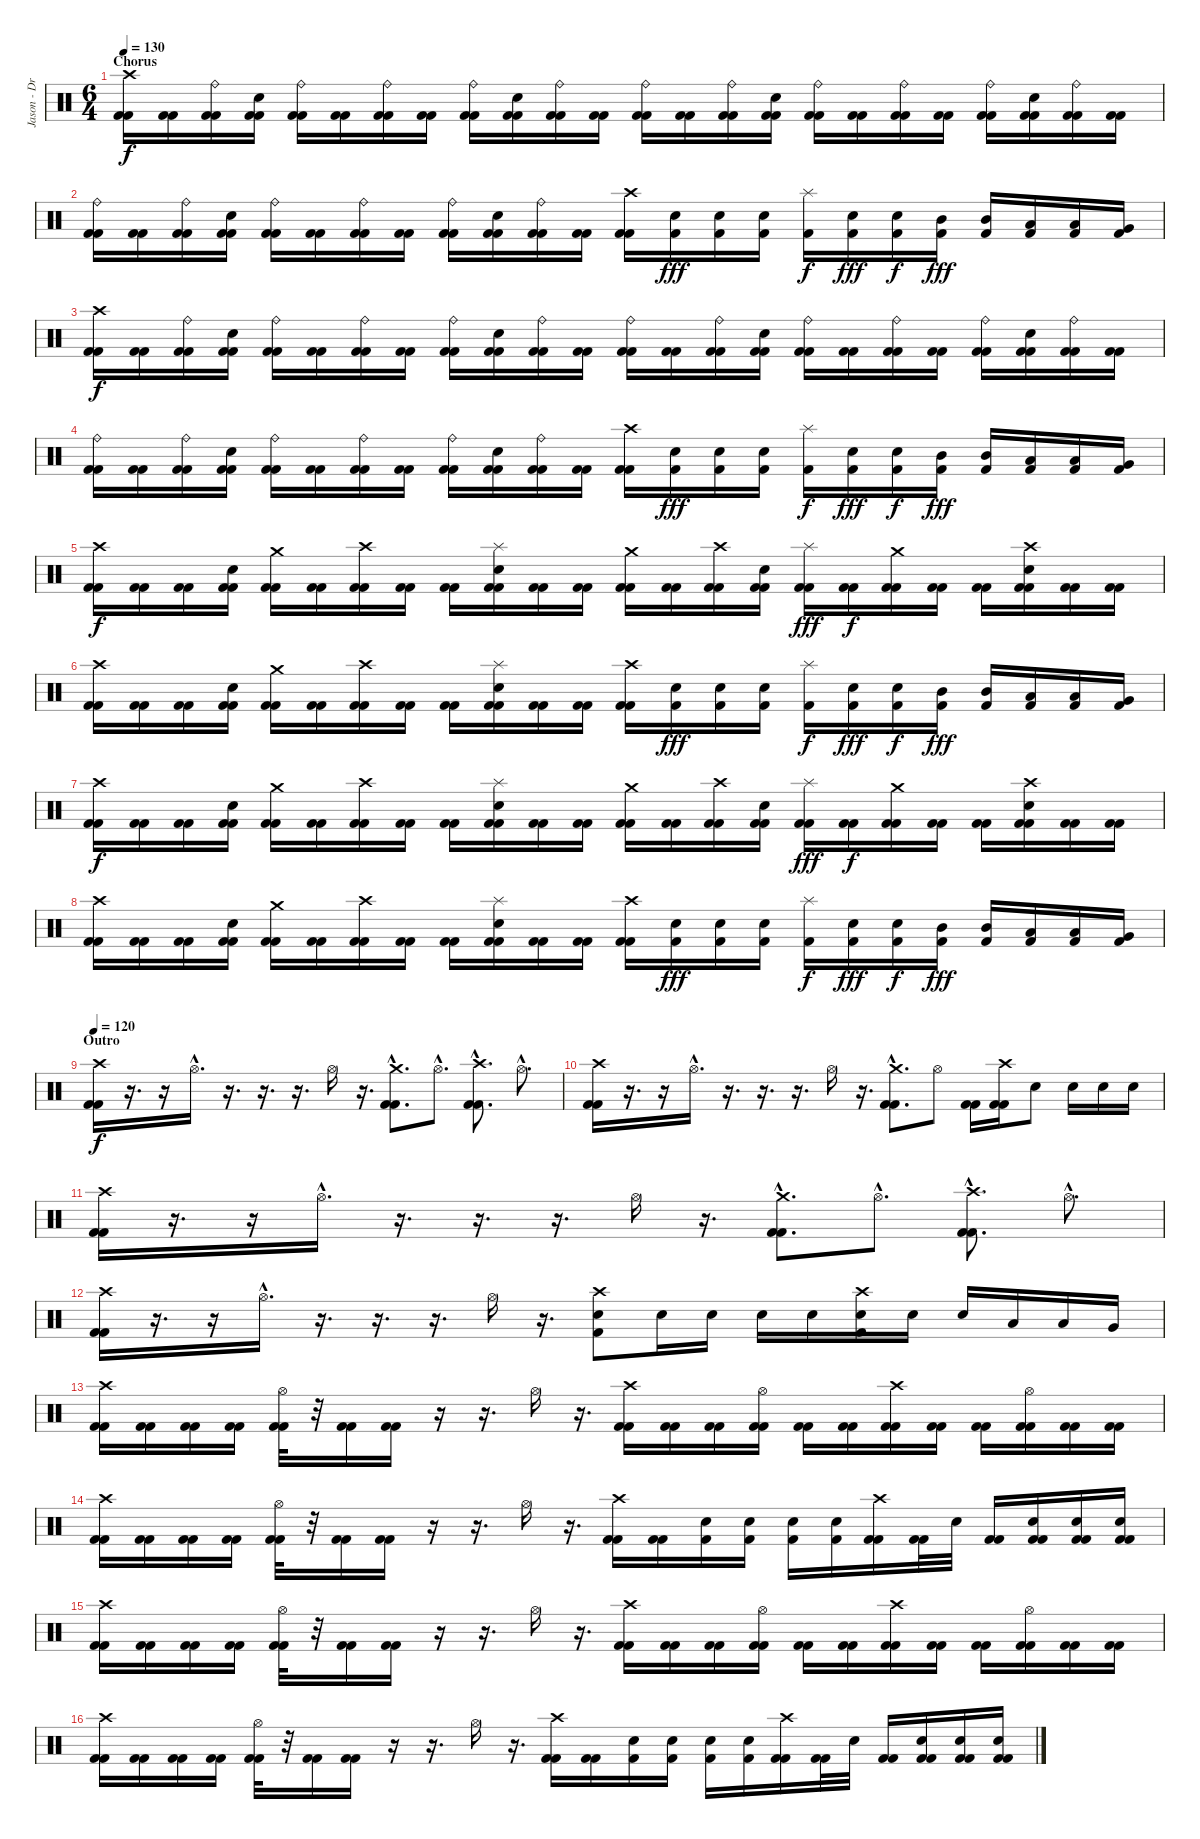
\track ("Jason - Drums" "Jason - Dr") {instrument percussion}
\staff {score}
\articulation defaults
\ts (6 4)
\section ("" "Chorus")
\tempo 130
\clef neutral
\ks c
("Crash high (hit)" "Kick (hit) 2" "Kick (hit) 2").16{dy f} ("Kick (hit) 2" "Kick (hit) 2").16 ("Ride (bell)" "Kick (hit) 2" "Kick (hit) 2").16 ("Electric Snare (hit)" "Kick (hit) 2" "Kick (hit) 2").16 ("Ride (bell)" "Kick (hit) 2" "Kick (hit) 2").16 ("Kick (hit) 2" "Kick (hit) 2").16 ("Ride (bell)" "Kick (hit) 2" "Kick (hit) 2").16 ("Kick (hit) 2" "Kick (hit) 2").16 ("Ride (bell)" "Kick (hit) 2" "Kick (hit) 2").16 ("Electric Snare (hit)" "Kick (hit) 2" "Kick (hit) 2").16 ("Ride (bell)" "Kick (hit) 2" "Kick (hit) 2").16 ("Kick (hit) 2" "Kick (hit) 2").16 ("Ride (bell)" "Kick (hit) 2" "Kick (hit) 2").16 ("Kick (hit) 2" "Kick (hit) 2").16 ("Ride (bell)" "Kick (hit) 2" "Kick (hit) 2").16 ("Electric Snare (hit)" "Kick (hit) 2" "Kick (hit) 2").16 ("Ride (bell)" "Kick (hit) 2" "Kick (hit) 2").16 ("Kick (hit) 2" "Kick (hit) 2").16 ("Ride (bell)" "Kick (hit) 2" "Kick (hit) 2").16 ("Kick (hit) 2" "Kick (hit) 2").16 ("Ride (bell)" "Kick (hit) 2" "Kick (hit) 2").16 ("Electric Snare (hit)" "Kick (hit) 2" "Kick (hit) 2").16 ("Ride (bell)" "Kick (hit) 2" "Kick (hit) 2").16 ("Kick (hit) 2" "Kick (hit) 2").16 |
("Ride (bell)" "Kick (hit) 2" "Kick (hit) 2").16 ("Kick (hit) 2" "Kick (hit) 2").16 ("Ride (bell)" "Kick (hit) 2" "Kick (hit) 2").16 ("Electric Snare (hit)" "Kick (hit) 2" "Kick (hit) 2").16 ("Ride (bell)" "Kick (hit) 2" "Kick (hit) 2").16 ("Kick (hit) 2" "Kick (hit) 2").16 ("Ride (bell)" "Kick (hit) 2" "Kick (hit) 2").16 ("Kick (hit) 2" "Kick (hit) 2").16 ("Ride (bell)" "Kick (hit) 2" "Kick (hit) 2").16 ("Electric Snare (hit)" "Kick (hit) 2" "Kick (hit) 2").16 ("Ride (bell)" "Kick (hit) 2" "Kick (hit) 2").16 ("Kick (hit) 2" "Kick (hit) 2").16 ("Crash high (hit)" "Kick (hit) 2" "Kick (hit) 2").16 ("Electric Snare (hit)" "Kick (hit) 2").16{dy fff} ("Electric Snare (hit)" "Kick (hit) 2").16 ("Electric Snare (hit)" "Kick (hit) 2").16 ("Splash (hit)" "Kick (hit) 2").16{dy f} ("Electric Snare (hit)" "Kick (hit) 2").16{dy fff} ("Electric Snare (hit)" "Kick (hit) 2").16{dy f} ("Mid Tom (hit)" "Kick (hit) 2").16{dy fff} ("Mid Tom (hit)" "Kick (hit) 2").16 ("Low Tom (hit)" "Kick (hit) 2").16 ("Low Tom (hit)" "Kick (hit) 2").16 ("Very Low Tom (hit)" "Kick (hit) 2").16 |
("Crash high (hit)" "Kick (hit) 2" "Kick (hit) 2").16{dy f} ("Kick (hit) 2" "Kick (hit) 2").16 ("Ride (bell)" "Kick (hit) 2" "Kick (hit) 2").16 ("Electric Snare (hit)" "Kick (hit) 2" "Kick (hit) 2").16 ("Ride (bell)" "Kick (hit) 2" "Kick (hit) 2").16 ("Kick (hit) 2" "Kick (hit) 2").16 ("Ride (bell)" "Kick (hit) 2" "Kick (hit) 2").16 ("Kick (hit) 2" "Kick (hit) 2").16 ("Ride (bell)" "Kick (hit) 2" "Kick (hit) 2").16 ("Electric Snare (hit)" "Kick (hit) 2" "Kick (hit) 2").16 ("Ride (bell)" "Kick (hit) 2" "Kick (hit) 2").16 ("Kick (hit) 2" "Kick (hit) 2").16 ("Ride (bell)" "Kick (hit) 2" "Kick (hit) 2").16 ("Kick (hit) 2" "Kick (hit) 2").16 ("Ride (bell)" "Kick (hit) 2" "Kick (hit) 2").16 ("Electric Snare (hit)" "Kick (hit) 2" "Kick (hit) 2").16 ("Ride (bell)" "Kick (hit) 2" "Kick (hit) 2").16 ("Kick (hit) 2" "Kick (hit) 2").16 ("Ride (bell)" "Kick (hit) 2" "Kick (hit) 2").16 ("Kick (hit) 2" "Kick (hit) 2").16 ("Ride (bell)" "Kick (hit) 2" "Kick (hit) 2").16 ("Electric Snare (hit)" "Kick (hit) 2" "Kick (hit) 2").16 ("Ride (bell)" "Kick (hit) 2" "Kick (hit) 2").16 ("Kick (hit) 2" "Kick (hit) 2").16 |
("Ride (bell)" "Kick (hit) 2" "Kick (hit) 2").16 ("Kick (hit) 2" "Kick (hit) 2").16 ("Ride (bell)" "Kick (hit) 2" "Kick (hit) 2").16 ("Electric Snare (hit)" "Kick (hit) 2" "Kick (hit) 2").16 ("Ride (bell)" "Kick (hit) 2" "Kick (hit) 2").16 ("Kick (hit) 2" "Kick (hit) 2").16 ("Ride (bell)" "Kick (hit) 2" "Kick (hit) 2").16 ("Kick (hit) 2" "Kick (hit) 2").16 ("Ride (bell)" "Kick (hit) 2" "Kick (hit) 2").16 ("Electric Snare (hit)" "Kick (hit) 2" "Kick (hit) 2").16 ("Ride (bell)" "Kick (hit) 2" "Kick (hit) 2").16 ("Kick (hit) 2" "Kick (hit) 2").16 ("Crash high (hit)" "Kick (hit) 2" "Kick (hit) 2").16 ("Electric Snare (hit)" "Kick (hit) 2").16{dy fff} ("Electric Snare (hit)" "Kick (hit) 2").16 ("Electric Snare (hit)" "Kick (hit) 2").16 ("Splash (hit)" "Kick (hit) 2").16{dy f} ("Electric Snare (hit)" "Kick (hit) 2").16{dy fff} ("Electric Snare (hit)" "Kick (hit) 2").16{dy f} ("Mid Tom (hit)" "Kick (hit) 2").16{dy fff} ("Mid Tom (hit)" "Kick (hit) 2").16 ("Low Tom (hit)" "Kick (hit) 2").16 ("Low Tom (hit)" "Kick (hit) 2").16 ("Very Low Tom (hit)" "Kick (hit) 2").16 |
("Crash high (hit)" "Kick (hit) 2" "Kick (hit) 2").16{dy f} ("Kick (hit) 2" "Kick (hit) 2").16 ("Kick (hit) 2" "Kick (hit) 2").16 ("Electric Snare (hit)" "Kick (hit) 2" "Kick (hit) 2").16 ("Crash medium (hit)" "Kick (hit) 2" "Kick (hit) 2").16 ("Kick (hit) 2" "Kick (hit) 2").16 ("Crash high (hit)" "Kick (hit) 2" "Kick (hit) 2").16 ("Kick (hit) 2" "Kick (hit) 2").16 ("Kick (hit) 2" "Kick (hit) 2").16 ("Splash (hit)" "Electric Snare (hit)" "Kick (hit) 2" "Kick (hit) 2").16 ("Kick (hit) 2" "Kick (hit) 2").16 ("Kick (hit) 2" "Kick (hit) 2").16 ("Crash medium (hit)" "Kick (hit) 2" "Kick (hit) 2").16 ("Kick (hit) 2" "Kick (hit) 2").16 ("Crash high (hit)" "Kick (hit) 2" "Kick (hit) 2").16 ("Electric Snare (hit)" "Kick (hit) 2" "Kick (hit) 2").16 ("Splash (hit)" "Kick (hit) 2" "Kick (hit) 2").16{dy fff} ("Kick (hit) 2" "Kick (hit) 2").16{dy f} ("Crash medium (hit)" "Kick (hit) 2" "Kick (hit) 2").16 ("Kick (hit) 2" "Kick (hit) 2").16 ("Kick (hit) 2" "Kick (hit) 2").16 ("Crash high (hit)" "Electric Snare (hit)" "Kick (hit) 2" "Kick (hit) 2").16 ("Kick (hit) 2" "Kick (hit) 2").16 ("Kick (hit) 2" "Kick (hit) 2").16 |
("Crash high (hit)" "Kick (hit) 2" "Kick (hit) 2").16 ("Kick (hit) 2" "Kick (hit) 2").16 ("Kick (hit) 2" "Kick (hit) 2").16 ("Electric Snare (hit)" "Kick (hit) 2" "Kick (hit) 2").16 ("Crash medium (hit)" "Kick (hit) 2" "Kick (hit) 2").16 ("Kick (hit) 2" "Kick (hit) 2").16 ("Crash high (hit)" "Kick (hit) 2" "Kick (hit) 2").16 ("Kick (hit) 2" "Kick (hit) 2").16 ("Kick (hit) 2" "Kick (hit) 2").16 ("Splash (hit)" "Electric Snare (hit)" "Kick (hit) 2" "Kick (hit) 2").16 ("Kick (hit) 2" "Kick (hit) 2").16 ("Kick (hit) 2" "Kick (hit) 2").16 ("Crash high (hit)" "Kick (hit) 2" "Kick (hit) 2").16 ("Electric Snare (hit)" "Kick (hit) 2").16{dy fff} ("Electric Snare (hit)" "Kick (hit) 2").16 ("Electric Snare (hit)" "Kick (hit) 2").16 ("Splash (hit)" "Kick (hit) 2").16{dy f} ("Electric Snare (hit)" "Kick (hit) 2").16{dy fff} ("Electric Snare (hit)" "Kick (hit) 2").16{dy f} ("Mid Tom (hit)" "Kick (hit) 2").16{dy fff} ("Mid Tom (hit)" "Kick (hit) 2").16 ("Low Tom (hit)" "Kick (hit) 2").16 ("Low Tom (hit)" "Kick (hit) 2").16 ("Very Low Tom (hit)" "Kick (hit) 2").16 |
("Crash high (hit)" "Kick (hit) 2" "Kick (hit) 2").16{dy f} ("Kick (hit) 2" "Kick (hit) 2").16 ("Kick (hit) 2" "Kick (hit) 2").16 ("Electric Snare (hit)" "Kick (hit) 2" "Kick (hit) 2").16 ("Crash medium (hit)" "Kick (hit) 2" "Kick (hit) 2").16 ("Kick (hit) 2" "Kick (hit) 2").16 ("Crash high (hit)" "Kick (hit) 2" "Kick (hit) 2").16 ("Kick (hit) 2" "Kick (hit) 2").16 ("Kick (hit) 2" "Kick (hit) 2").16 ("Splash (hit)" "Electric Snare (hit)" "Kick (hit) 2" "Kick (hit) 2").16 ("Kick (hit) 2" "Kick (hit) 2").16 ("Kick (hit) 2" "Kick (hit) 2").16 ("Crash medium (hit)" "Kick (hit) 2" "Kick (hit) 2").16 ("Kick (hit) 2" "Kick (hit) 2").16 ("Crash high (hit)" "Kick (hit) 2" "Kick (hit) 2").16 ("Electric Snare (hit)" "Kick (hit) 2" "Kick (hit) 2").16 ("Splash (hit)" "Kick (hit) 2" "Kick (hit) 2").16{dy fff} ("Kick (hit) 2" "Kick (hit) 2").16{dy f} ("Crash medium (hit)" "Kick (hit) 2" "Kick (hit) 2").16 ("Kick (hit) 2" "Kick (hit) 2").16 ("Kick (hit) 2" "Kick (hit) 2").16 ("Crash high (hit)" "Electric Snare (hit)" "Kick (hit) 2" "Kick (hit) 2").16 ("Kick (hit) 2" "Kick (hit) 2").16 ("Kick (hit) 2" "Kick (hit) 2").16 |
("Crash high (hit)" "Kick (hit) 2" "Kick (hit) 2").16 ("Kick (hit) 2" "Kick (hit) 2").16 ("Kick (hit) 2" "Kick (hit) 2").16 ("Electric Snare (hit)" "Kick (hit) 2" "Kick (hit) 2").16 ("Crash medium (hit)" "Kick (hit) 2" "Kick (hit) 2").16 ("Kick (hit) 2" "Kick (hit) 2").16 ("Crash high (hit)" "Kick (hit) 2" "Kick (hit) 2").16 ("Kick (hit) 2" "Kick (hit) 2").16 ("Kick (hit) 2" "Kick (hit) 2").16 ("Splash (hit)" "Electric Snare (hit)" "Kick (hit) 2" "Kick (hit) 2").16 ("Kick (hit) 2" "Kick (hit) 2").16 ("Kick (hit) 2" "Kick (hit) 2").16 ("Crash high (hit)" "Kick (hit) 2" "Kick (hit) 2").16 ("Electric Snare (hit)" "Kick (hit) 2").16{dy fff} ("Electric Snare (hit)" "Kick (hit) 2").16 ("Electric Snare (hit)" "Kick (hit) 2").16 ("Splash (hit)" "Kick (hit) 2").16{dy f} ("Electric Snare (hit)" "Kick (hit) 2").16{dy fff} ("Electric Snare (hit)" "Kick (hit) 2").16{dy f} ("Mid Tom (hit)" "Kick (hit) 2").16{dy fff} ("Mid Tom (hit)" "Kick (hit) 2").16 ("Low Tom (hit)" "Kick (hit) 2").16 ("Low Tom (hit)" "Kick (hit) 2").16 ("Very Low Tom (hit)" "Kick (hit) 2").16 |
\section ("" "Outro")
\tempo 120
("Crash high (hit)" "Kick (hit) 2" "Kick (hit) 2").16{dy f} r.16{d} r.16 "Hi-Hat (open)"{hac}.16{d} r.16{d} r.16{d} r.16{d} "Hi-Hat (open)".16 r.16{d} ("Crash medium (hit)"{hac} "Kick (hit) 2"{hac} "Kick (hit) 2"{hac}).8{d} "Hi-Hat (open)"{hac}.8{d} ("Crash high (hit)"{hac} "Kick (hit) 2"{hac} "Kick (hit) 2"{hac}).8{d} "Hi-Hat (open)"{hac}.8{d} |
("Crash high (hit)" "Kick (hit) 2" "Kick (hit) 2").16 r.16{d} r.16 "Hi-Hat (open)"{hac}.16{d} r.16{d} r.16{d} r.16{d} "Hi-Hat (open)".16 r.16{d} ("Crash medium (hit)"{hac} "Kick (hit) 2"{hac} "Kick (hit) 2"{hac}).8{d} "Hi-Hat (open)".8 ("Kick (hit) 2" "Kick (hit) 2").16 ("Crash high (hit)" "Kick (hit) 2" "Kick (hit) 2").16 "Electric Snare (hit)".8 "Electric Snare (hit)".16 "Electric Snare (hit)".16 "Electric Snare (hit)".16 |
("Crash high (hit)" "Kick (hit) 2" "Kick (hit) 2").16 r.16{d} r.16 "Hi-Hat (open)"{hac}.16{d} r.16{d} r.16{d} r.16{d} "Hi-Hat (open)".16 r.16{d} ("Crash medium (hit)"{hac} "Kick (hit) 2"{hac} "Kick (hit) 2"{hac}).8{d} "Hi-Hat (open)"{hac}.8{d} ("Crash high (hit)"{hac} "Kick (hit) 2"{hac} "Kick (hit) 2"{hac}).8{d} "Hi-Hat (open)"{hac}.8{d} |
("Crash high (hit)" "Kick (hit) 2" "Kick (hit) 2").16 r.16{d} r.16 "Hi-Hat (open)"{hac}.16{d} r.16{d} r.16{d} r.16{d} "Hi-Hat (open)".16 r.16{d} ("Crash high (hit)" "Electric Snare (hit)" "Kick (hit) 2").8 "Electric Snare (hit)".16 "Electric Snare (hit)".16 "Electric Snare (hit)".16 "Electric Snare (hit)".16 ("Crash high (hit)" "Electric Snare (hit)" "Kick (hit) 2").16 "Electric Snare (hit)".16 "Electric Snare (hit)".16 "Low Tom (hit)".16 "Low Tom (hit)".16 "Very Low Tom (hit)".16 |
("Crash high (hit)" "Kick (hit) 2" "Kick (hit) 2").16 ("Kick (hit) 2" "Kick (hit) 2").16 ("Kick (hit) 2" "Kick (hit) 2").16 ("Kick (hit) 2" "Kick (hit) 2").16 ("Hi-Hat (open)" "Kick (hit) 2" "Kick (hit) 2").32 r.32 ("Kick (hit) 2" "Kick (hit) 2").16 ("Kick (hit) 2" "Kick (hit) 2").16 r.16 r.16{d} "Hi-Hat (open)".16 r.16{d} ("Crash high (hit)" "Kick (hit) 2" "Kick (hit) 2").16 ("Kick (hit) 2" "Kick (hit) 2").16 ("Kick (hit) 2" "Kick (hit) 2").16 ("Hi-Hat (open)" "Kick (hit) 2" "Kick (hit) 2").16 ("Kick (hit) 2" "Kick (hit) 2").16 ("Kick (hit) 2" "Kick (hit) 2").16 ("Crash high (hit)" "Kick (hit) 2" "Kick (hit) 2").16 ("Kick (hit) 2" "Kick (hit) 2").16 ("Kick (hit) 2" "Kick (hit) 2").16 ("Hi-Hat (open)" "Kick (hit) 2" "Kick (hit) 2").16 ("Kick (hit) 2" "Kick (hit) 2").16 ("Kick (hit) 2" "Kick (hit) 2").16 |
("Crash high (hit)" "Kick (hit) 2" "Kick (hit) 2").16 ("Kick (hit) 2" "Kick (hit) 2").16 ("Kick (hit) 2" "Kick (hit) 2").16 ("Kick (hit) 2" "Kick (hit) 2").16 ("Hi-Hat (open)" "Kick (hit) 2" "Kick (hit) 2").32 r.32 ("Kick (hit) 2" "Kick (hit) 2").16 ("Kick (hit) 2" "Kick (hit) 2").16 r.16 r.16{d} "Hi-Hat (open)".16 r.16{d} ("Crash high (hit)" "Kick (hit) 2" "Kick (hit) 2").16 ("Kick (hit) 2" "Kick (hit) 2").16 ("Electric Snare (hit)" "Kick (hit) 2").16 ("Electric Snare (hit)" "Kick (hit) 2").16 ("Electric Snare (hit)" "Kick (hit) 2").16 ("Electric Snare (hit)" "Kick (hit) 2").16 ("Crash high (hit)" "Kick (hit) 2" "Kick (hit) 2").16 ("Kick (hit) 2" "Kick (hit) 2").32 "Electric Snare (hit)".32 ("Kick (hit) 2" "Kick (hit) 2").16 ("Electric Snare (hit)" "Kick (hit) 2" "Kick (hit) 2").16 ("Electric Snare (hit)" "Kick (hit) 2" "Kick (hit) 2").16 ("Electric Snare (hit)" "Kick (hit) 2" "Kick (hit) 2").16 |
("Crash high (hit)" "Kick (hit) 2" "Kick (hit) 2").16 ("Kick (hit) 2" "Kick (hit) 2").16 ("Kick (hit) 2" "Kick (hit) 2").16 ("Kick (hit) 2" "Kick (hit) 2").16 ("Hi-Hat (open)" "Kick (hit) 2" "Kick (hit) 2").32 r.32 ("Kick (hit) 2" "Kick (hit) 2").16 ("Kick (hit) 2" "Kick (hit) 2").16 r.16 r.16{d} "Hi-Hat (open)".16 r.16{d} ("Crash high (hit)" "Kick (hit) 2" "Kick (hit) 2").16 ("Kick (hit) 2" "Kick (hit) 2").16 ("Kick (hit) 2" "Kick (hit) 2").16 ("Hi-Hat (open)" "Kick (hit) 2" "Kick (hit) 2").16 ("Kick (hit) 2" "Kick (hit) 2").16 ("Kick (hit) 2" "Kick (hit) 2").16 ("Crash high (hit)" "Kick (hit) 2" "Kick (hit) 2").16 ("Kick (hit) 2" "Kick (hit) 2").16 ("Kick (hit) 2" "Kick (hit) 2").16 ("Hi-Hat (open)" "Kick (hit) 2" "Kick (hit) 2").16 ("Kick (hit) 2" "Kick (hit) 2").16 ("Kick (hit) 2" "Kick (hit) 2").16 |
("Crash high (hit)" "Kick (hit) 2" "Kick (hit) 2").16 ("Kick (hit) 2" "Kick (hit) 2").16 ("Kick (hit) 2" "Kick (hit) 2").16 ("Kick (hit) 2" "Kick (hit) 2").16 ("Hi-Hat (open)" "Kick (hit) 2" "Kick (hit) 2").32 r.32 ("Kick (hit) 2" "Kick (hit) 2").16 ("Kick (hit) 2" "Kick (hit) 2").16 r.16 r.16{d} "Hi-Hat (open)".16 r.16{d} ("Crash high (hit)" "Kick (hit) 2" "Kick (hit) 2").16 ("Kick (hit) 2" "Kick (hit) 2").16 ("Electric Snare (hit)" "Kick (hit) 2").16 ("Electric Snare (hit)" "Kick (hit) 2").16 ("Electric Snare (hit)" "Kick (hit) 2").16 ("Electric Snare (hit)" "Kick (hit) 2").16 ("Crash high (hit)" "Kick (hit) 2" "Kick (hit) 2").16 ("Kick (hit) 2" "Kick (hit) 2").32 "Electric Snare (hit)".32 ("Kick (hit) 2" "Kick (hit) 2").16 ("Electric Snare (hit)" "Kick (hit) 2" "Kick (hit) 2").16 ("Electric Snare (hit)" "Kick (hit) 2" "Kick (hit) 2").16 ("Electric Snare (hit)" "Kick (hit) 2" "Kick (hit) 2").16
